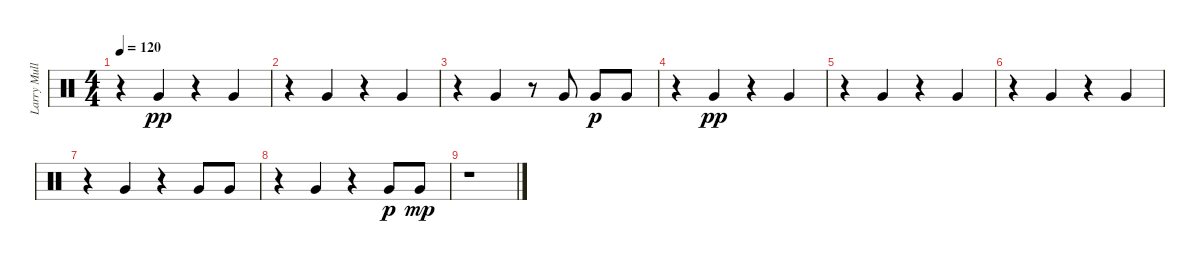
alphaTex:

\track ("Larry Mullen jr." "Larry Mull") {instrument percussion}
\staff {score}
\articulation defaults
\ts (4 4)
\tempo 120
\clef neutral
\ks c
r.4{dy p} "Very Low Tom (hit)".4{dy pp} r.4 "Very Low Tom (hit)".4 |
r.4 "Very Low Tom (hit)".4 r.4 "Very Low Tom (hit)".4 |
r.4 "Very Low Tom (hit)".4 r.8 "Very Low Tom (hit)".8 "Very Low Tom (hit)".8{dy p} "Very Low Tom (hit)".8 |
r.4 "Very Low Tom (hit)".4{dy pp} r.4 "Very Low Tom (hit)".4 |
r.4 "Very Low Tom (hit)".4 r.4 "Very Low Tom (hit)".4 |
r.4 "Very Low Tom (hit)".4 r.4 "Very Low Tom (hit)".4 |
r.4 "Very Low Tom (hit)".4 r.4 "Very Low Tom (hit)".8 "Very Low Tom (hit)".8 |
r.4 "Very Low Tom (hit)".4 r.4 "Very Low Tom (hit)".8{dy p} "Very Low Tom (hit)".8{dy mp} |
r.1
